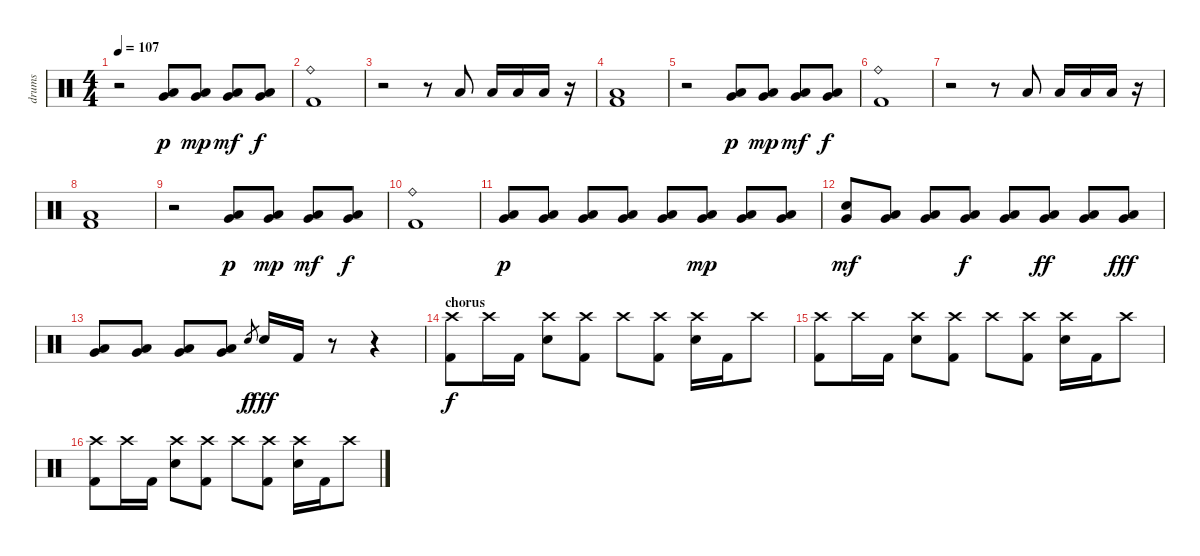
\track ("drums" "drums") {instrument percussion}
\staff {score}
\articulation defaults
\ts (4 4)
\tempo 107
\clef neutral
\ks c
r.2{dy f} ("Low Floor Tom (hit)" "Very Low Tom (hit)").8{dy p} ("Low Floor Tom (hit)" "Very Low Tom (hit)").8{dy mp} ("Low Floor Tom (hit)" "Very Low Tom (hit)").8{dy mf} ("Low Floor Tom (hit)" "Very Low Tom (hit)").8{dy f} |
("Ride (bell)" "Kick (hit) 2").1 |
r.2 r.8 "Low Floor Tom (hit)".8 "Low Floor Tom (hit)".16 "Low Floor Tom (hit)".16 "Low Floor Tom (hit)".16 r.16 |
("Low Floor Tom (hit)" "Kick (hit) 2").1 |
r.2 ("Low Floor Tom (hit)" "Very Low Tom (hit)").8{dy p} ("Low Floor Tom (hit)" "Very Low Tom (hit)").8{dy mp} ("Low Floor Tom (hit)" "Very Low Tom (hit)").8{dy mf} ("Low Floor Tom (hit)" "Very Low Tom (hit)").8{dy f} |
("Ride (bell)" "Kick (hit) 2").1 |
r.2 r.8 "Low Floor Tom (hit)".8 "Low Floor Tom (hit)".16 "Low Floor Tom (hit)".16 "Low Floor Tom (hit)".16 r.16 |
("Low Floor Tom (hit)" "Kick (hit) 2").1 |
r.2 ("Low Floor Tom (hit)" "Very Low Tom (hit)").8{dy p} ("Low Floor Tom (hit)" "Very Low Tom (hit)").8{dy mp} ("Low Floor Tom (hit)" "Very Low Tom (hit)").8{dy mf} ("Low Floor Tom (hit)" "Very Low Tom (hit)").8{dy f} |
("Ride (bell)" "Kick (hit) 2").1 |
("Very Low Tom (hit)" "Low Floor Tom (hit)").8{dy p} ("Very Low Tom (hit)" "Low Floor Tom (hit)").8 ("Very Low Tom (hit)" "Low Floor Tom (hit)").8 ("Very Low Tom (hit)" "Low Floor Tom (hit)").8 ("Very Low Tom (hit)" "Low Floor Tom (hit)").8 ("Very Low Tom (hit)" "Low Floor Tom (hit)").8{dy mp} ("Very Low Tom (hit)" "Low Floor Tom (hit)").8 ("Very Low Tom (hit)" "Low Floor Tom (hit)").8 |
("Very Low Tom (hit)" "Electric Snare (hit)").8{dy mf} ("Very Low Tom (hit)" "Low Floor Tom (hit)").8 ("Very Low Tom (hit)" "Low Floor Tom (hit)").8 ("Very Low Tom (hit)" "Low Floor Tom (hit)").8{dy f} ("Very Low Tom (hit)" "Low Floor Tom (hit)").8 ("Very Low Tom (hit)" "Low Floor Tom (hit)").8{dy ff} ("Very Low Tom (hit)" "Low Floor Tom (hit)").8 ("Very Low Tom (hit)" "Low Floor Tom (hit)").8{dy fff} |
("Very Low Tom (hit)" "Low Floor Tom (hit)").8 ("Very Low Tom (hit)" "Low Floor Tom (hit)").8 ("Very Low Tom (hit)" "Low Floor Tom (hit)").8 ("Very Low Tom (hit)" "Low Floor Tom (hit)").8 "Electric Snare (hit)".8{gr dy f} "Electric Snare (hit)".16{dy fff} "Kick (hit) 2".16 r.8 r.4 |
\section ("" "chorus")
("Crash high (hit)" "Kick (hit) 2").8{dy f} "Crash high (hit)".16 "Kick (hit) 2".16 ("Crash high (hit)" "Electric Snare (hit)").8 ("Crash high (hit)" "Kick (hit) 2").8 "Crash high (hit)".8 ("Crash high (hit)" "Kick (hit) 2").8 ("Crash high (hit)" "Electric Snare (hit)").16 "Kick (hit) 2".16 "Crash high (hit)".8 |
("Crash high (hit)" "Kick (hit) 2").8 "Crash high (hit)".16 "Kick (hit) 2".16 ("Crash high (hit)" "Electric Snare (hit)").8 ("Crash high (hit)" "Kick (hit) 2").8 "Crash high (hit)".8 ("Crash high (hit)" "Kick (hit) 2").8 ("Crash high (hit)" "Electric Snare (hit)").16 "Kick (hit) 2".16 "Crash high (hit)".8 |
("Crash high (hit)" "Kick (hit) 2").8 "Crash high (hit)".16 "Kick (hit) 2".16 ("Crash high (hit)" "Electric Snare (hit)").8 ("Crash high (hit)" "Kick (hit) 2").8 "Crash high (hit)".8 ("Crash high (hit)" "Kick (hit) 2").8 ("Crash high (hit)" "Electric Snare (hit)").16 "Kick (hit) 2".16 "Crash high (hit)".8
